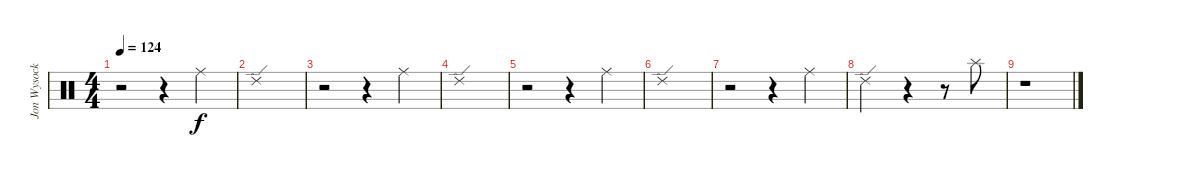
\track ("Jon Wysocki - Drums" "Jon Wysock") {instrument percussion}
\staff {score}
\articulation defaults
\ts (4 4)
\tempo 124
\clef neutral
\ks c
r.2{dy f} r.4 "Ride (middle)".4 |
"Ride (edge) 2".1 |
r.2 r.4 "Ride (middle)".4 |
"Ride (edge) 2".1 |
r.2 r.4 "Ride (middle)".4 |
"Ride (edge) 2".1 |
r.2 r.4 "Ride (middle)".4 |
"Ride (edge) 2".2 r.4 r.8 "Splash (hit)".8 |
r.1
